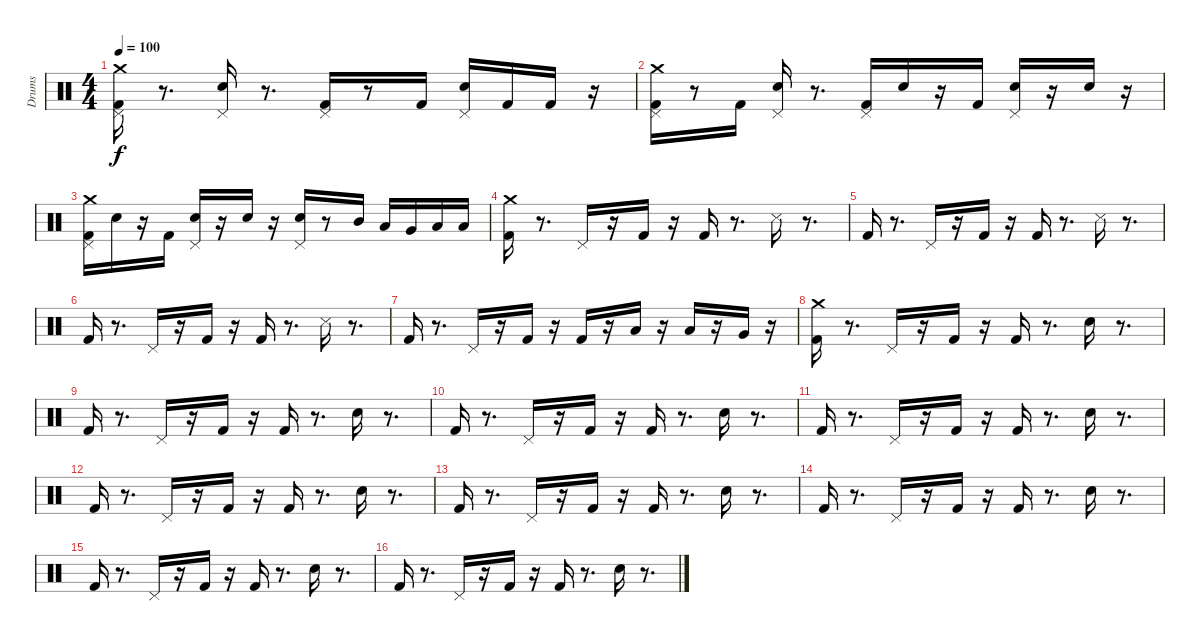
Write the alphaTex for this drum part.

\track ("Drums" "Drums") {instrument percussion}
\staff {score}
\articulation defaults
\ts (4 4)
\tempo 100
\clef neutral
\ks c
("Pedal Hi-Hat (hit)" "Kick (hit) 2" "Crash medium (hit)").16{dy f} r.8{d} ("Pedal Hi-Hat (hit)" "Snare (hit) 2").16 r.8{d} ("Pedal Hi-Hat (hit)" "Kick (hit) 2").16 r.8 "Kick (hit) 2".16 ("Pedal Hi-Hat (hit)" "Snare (hit) 2").16 "Kick (hit) 2".16 "Kick (hit) 2".16 r.16 |
("Pedal Hi-Hat (hit)" "Kick (hit) 2" "Crash medium (hit)").16 r.8 "Kick (hit) 2".16 ("Pedal Hi-Hat (hit)" "Snare (hit) 2").16 r.8{d} ("Pedal Hi-Hat (hit)" "Kick (hit) 2").16 "Snare (hit) 2".16 r.16 "Kick (hit) 2".16 ("Pedal Hi-Hat (hit)" "Snare (hit) 2").16 r.16 "Snare (hit) 2".16 r.16 |
("Pedal Hi-Hat (hit)" "Kick (hit) 2" "Crash medium (hit)").16 "Snare (hit) 2".16 r.16 "Kick (hit) 2".16 ("Pedal Hi-Hat (hit)" "Snare (hit) 2").16 r.16 "Snare (hit) 2".16 r.16 ("Pedal Hi-Hat (hit)" "Snare (hit) 2").16 r.8 "Mid Tom (hit)".16 "Low Tom (hit)".16 "Very Low Tom (hit)".16 "Low Floor Tom (hit)".16 "Low Floor Tom (hit)".16 |
("Kick (hit) 2" "Crash medium (hit)").16 r.8{d} "Pedal Hi-Hat (hit)".16 r.16 "Kick (hit) 2".16 r.16 "Kick (hit) 2".16 r.8{d} "Snare (side stick) 3".16 r.8{d} |
"Kick (hit) 2".16 r.8{d} "Pedal Hi-Hat (hit)".16 r.16 "Kick (hit) 2".16 r.16 "Kick (hit) 2".16 r.8{d} "Snare (side stick) 3".16 r.8{d} |
"Kick (hit) 2".16 r.8{d} "Pedal Hi-Hat (hit)".16 r.16 "Kick (hit) 2".16 r.16 "Kick (hit) 2".16 r.8{d} "Snare (side stick) 3".16 r.8{d} |
"Kick (hit) 2".16 r.8{d} "Pedal Hi-Hat (hit)".16 r.16 "Kick (hit) 2".16 r.16 "Kick (hit) 2".16 r.16 "Low Tom (hit)".16 r.16 "Low Tom (hit)".16 r.16 "Very Low Tom (hit)".16 r.16 |
("Crash medium (hit)" "Kick (hit) 2").16 r.8{d} "Pedal Hi-Hat (hit)".16 r.16 "Kick (hit) 2".16 r.16 "Kick (hit) 2".16 r.8{d} "Electric Snare (hit)".16 r.8{d} |
"Kick (hit) 2".16 r.8{d} "Pedal Hi-Hat (hit)".16 r.16 "Kick (hit) 2".16 r.16 "Kick (hit) 2".16 r.8{d} "Electric Snare (hit)".16 r.8{d} |
"Kick (hit) 2".16 r.8{d} "Pedal Hi-Hat (hit)".16 r.16 "Kick (hit) 2".16 r.16 "Kick (hit) 2".16 r.8{d} "Electric Snare (hit)".16 r.8{d} |
"Kick (hit) 2".16 r.8{d} "Pedal Hi-Hat (hit)".16 r.16 "Kick (hit) 2".16 r.16 "Kick (hit) 2".16 r.8{d} "Electric Snare (hit)".16 r.8{d} |
"Kick (hit) 2".16 r.8{d} "Pedal Hi-Hat (hit)".16 r.16 "Kick (hit) 2".16 r.16 "Kick (hit) 2".16 r.8{d} "Electric Snare (hit)".16 r.8{d} |
"Kick (hit) 2".16 r.8{d} "Pedal Hi-Hat (hit)".16 r.16 "Kick (hit) 2".16 r.16 "Kick (hit) 2".16 r.8{d} "Electric Snare (hit)".16 r.8{d} |
"Kick (hit) 2".16 r.8{d} "Pedal Hi-Hat (hit)".16 r.16 "Kick (hit) 2".16 r.16 "Kick (hit) 2".16 r.8{d} "Electric Snare (hit)".16 r.8{d} |
"Kick (hit) 2".16 r.8{d} "Pedal Hi-Hat (hit)".16 r.16 "Kick (hit) 2".16 r.16 "Kick (hit) 2".16 r.8{d} "Electric Snare (hit)".16 r.8{d} |
"Kick (hit) 2".16 r.8{d} "Pedal Hi-Hat (hit)".16 r.16 "Kick (hit) 2".16 r.16 "Kick (hit) 2".16 r.8{d} "Electric Snare (hit)".16 r.8{d}
